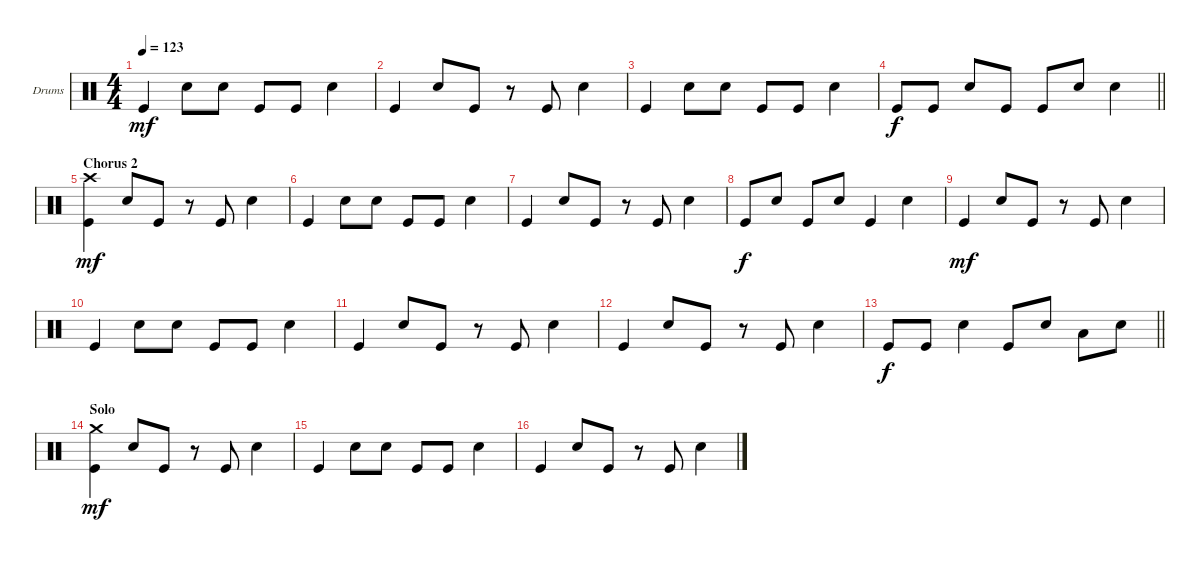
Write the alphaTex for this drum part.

\defaultSystemsLayout 4
\bracketExtendMode groupsimilarinstruments
\firstSystemTrackNameOrientation horizontal
\otherSystemsTrackNameOrientation horizontal
\track ("Drumkit" "Drums") {instrument percussion}
\staff {score}
\articulation defaults
\ts (4 4)
\tempo 123
\clef neutral
\ks c "Kick (hit)".4{dy mf} "Snare (hit) 2".8 "Snare (hit) 2".8 "Kick (hit)".8 "Kick (hit)".8 "Snare (hit) 2".4
|
"Kick (hit)".4 "Snare (hit) 2".8 "Kick (hit)".8 r.8 "Kick (hit)".8 "Snare (hit) 2".4 |
"Kick (hit)".4 "Snare (hit) 2".8 "Snare (hit) 2".8 "Kick (hit)".8 "Kick (hit)".8 "Snare (hit) 2".4 |
\barLineRight lightlight "Kick (hit)".8{dy f} "Kick (hit)".8 "Snare (hit) 2".8 "Kick (hit)".8 "Kick (hit)".8 "Snare (hit) 2".8 "Snare (hit) 2".4
|
\section ("" "Chorus 2")
("Kick (hit)" "Crash high (hit)").4{dy mf} "Snare (hit) 2".8 "Kick (hit)".8 r.8 "Kick (hit)".8 "Snare (hit) 2".4 |
"Kick (hit)".4 "Snare (hit) 2".8 "Snare (hit) 2".8 "Kick (hit)".8 "Kick (hit)".8 "Snare (hit) 2".4 |
"Kick (hit)".4 "Snare (hit) 2".8 "Kick (hit)".8 r.8 "Kick (hit)".8 "Snare (hit) 2".4 |
"Kick (hit)".8{dy f} "Snare (hit) 2".8 "Kick (hit)".8 "Snare (hit) 2".8 "Kick (hit)".4 "Snare (hit) 2".4 |
"Kick (hit)".4{dy mf} "Snare (hit) 2".8 "Kick (hit)".8 r.8 "Kick (hit)".8 "Snare (hit) 2".4 |
"Kick (hit)".4 "Snare (hit) 2".8 "Snare (hit) 2".8 "Kick (hit)".8 "Kick (hit)".8 "Snare (hit) 2".4 |
"Kick (hit)".4 "Snare (hit) 2".8 "Kick (hit)".8 r.8 "Kick (hit)".8 "Snare (hit) 2".4 |
"Kick (hit)".4 "Snare (hit) 2".8 "Kick (hit)".8 r.8 "Kick (hit)".8 "Snare (hit) 2".4 |
\barLineRight lightlight "Kick (hit)".8{dy f} "Kick (hit)".8 "Snare (hit) 2".4 "Kick (hit)".8 "Snare (hit) 2".8 "Low Tom (hit)".8 "Snare (hit) 2".8
|
\section ("" "Solo")
("Kick (hit)" "Crash medium (hit)").4{dy mf} "Snare (hit) 2".8 "Kick (hit)".8 r.8 "Kick (hit)".8 "Snare (hit) 2".4 |
"Kick (hit)".4 "Snare (hit) 2".8 "Snare (hit) 2".8 "Kick (hit)".8 "Kick (hit)".8 "Snare (hit) 2".4 |
"Kick (hit)".4 "Snare (hit) 2".8 "Kick (hit)".8 r.8 "Kick (hit)".8 "Snare (hit) 2".4
